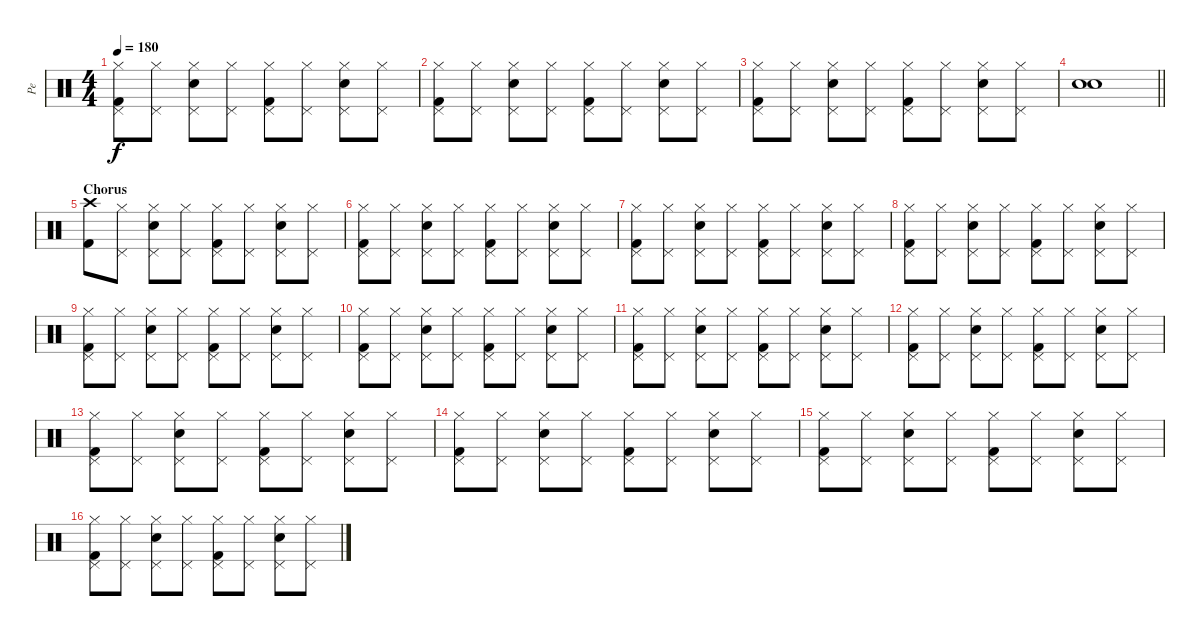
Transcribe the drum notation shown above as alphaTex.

\track ("Pe" "Pe") {instrument percussion}
\staff {score}
\articulation defaults
\ts (4 4)
\tempo 180
\clef neutral
\ks c
("Kick (hit) 2" "Hi-Hat (closed)" "Pedal Hi-Hat (hit)").8{dy f} ("Hi-Hat (closed)" "Pedal Hi-Hat (hit)").8 ("Electric Snare (hit)" "Hi-Hat (closed)" "Pedal Hi-Hat (hit)").8 ("Hi-Hat (closed)" "Pedal Hi-Hat (hit)").8 ("Kick (hit) 2" "Hi-Hat (closed)" "Pedal Hi-Hat (hit)").8 ("Hi-Hat (closed)" "Pedal Hi-Hat (hit)").8 ("Electric Snare (hit)" "Hi-Hat (closed)" "Pedal Hi-Hat (hit)").8 ("Hi-Hat (closed)" "Pedal Hi-Hat (hit)").8 |
("Kick (hit) 2" "Hi-Hat (closed)" "Pedal Hi-Hat (hit)").8 ("Hi-Hat (closed)" "Pedal Hi-Hat (hit)").8 ("Electric Snare (hit)" "Hi-Hat (closed)" "Pedal Hi-Hat (hit)").8 ("Hi-Hat (closed)" "Pedal Hi-Hat (hit)").8 ("Kick (hit) 2" "Hi-Hat (closed)" "Pedal Hi-Hat (hit)").8 ("Hi-Hat (closed)" "Pedal Hi-Hat (hit)").8 ("Electric Snare (hit)" "Hi-Hat (closed)" "Pedal Hi-Hat (hit)").8 ("Hi-Hat (closed)" "Pedal Hi-Hat (hit)").8 |
("Kick (hit) 2" "Hi-Hat (closed)" "Pedal Hi-Hat (hit)").8 ("Hi-Hat (closed)" "Pedal Hi-Hat (hit)").8 ("Electric Snare (hit)" "Hi-Hat (closed)" "Pedal Hi-Hat (hit)").8 ("Hi-Hat (closed)" "Pedal Hi-Hat (hit)").8 ("Kick (hit) 2" "Hi-Hat (closed)" "Pedal Hi-Hat (hit)").8 ("Hi-Hat (closed)" "Pedal Hi-Hat (hit)").8 ("Electric Snare (hit)" "Hi-Hat (closed)" "Pedal Hi-Hat (hit)").8 ("Hi-Hat (closed)" "Pedal Hi-Hat (hit)").8 |
\barLineRight lightlight
("Electric Snare (hit)" "Electric Snare (hit)").1 |
\section ("" "Chorus")
("Kick (hit) 2" "Crash high (hit)").8 ("Hi-Hat (closed)" "Pedal Hi-Hat (hit)").8 ("Electric Snare (hit)" "Hi-Hat (closed)" "Pedal Hi-Hat (hit)").8 ("Hi-Hat (closed)" "Pedal Hi-Hat (hit)").8 ("Kick (hit) 2" "Hi-Hat (closed)" "Pedal Hi-Hat (hit)").8 ("Hi-Hat (closed)" "Pedal Hi-Hat (hit)").8 ("Electric Snare (hit)" "Hi-Hat (closed)" "Pedal Hi-Hat (hit)").8 ("Hi-Hat (closed)" "Pedal Hi-Hat (hit)").8 |
("Kick (hit) 2" "Hi-Hat (closed)" "Pedal Hi-Hat (hit)").8 ("Hi-Hat (closed)" "Pedal Hi-Hat (hit)").8 ("Electric Snare (hit)" "Hi-Hat (closed)" "Pedal Hi-Hat (hit)").8 ("Hi-Hat (closed)" "Pedal Hi-Hat (hit)").8 ("Kick (hit) 2" "Hi-Hat (closed)" "Pedal Hi-Hat (hit)").8 ("Hi-Hat (closed)" "Pedal Hi-Hat (hit)").8 ("Electric Snare (hit)" "Hi-Hat (closed)" "Pedal Hi-Hat (hit)").8 ("Hi-Hat (closed)" "Pedal Hi-Hat (hit)").8 |
("Kick (hit) 2" "Hi-Hat (closed)" "Pedal Hi-Hat (hit)").8 ("Hi-Hat (closed)" "Pedal Hi-Hat (hit)").8 ("Electric Snare (hit)" "Hi-Hat (closed)" "Pedal Hi-Hat (hit)").8 ("Hi-Hat (closed)" "Pedal Hi-Hat (hit)").8 ("Kick (hit) 2" "Hi-Hat (closed)" "Pedal Hi-Hat (hit)").8 ("Hi-Hat (closed)" "Pedal Hi-Hat (hit)").8 ("Electric Snare (hit)" "Hi-Hat (closed)" "Pedal Hi-Hat (hit)").8 ("Hi-Hat (closed)" "Pedal Hi-Hat (hit)").8 |
("Kick (hit) 2" "Hi-Hat (closed)" "Pedal Hi-Hat (hit)").8 ("Hi-Hat (closed)" "Pedal Hi-Hat (hit)").8 ("Electric Snare (hit)" "Hi-Hat (closed)" "Pedal Hi-Hat (hit)").8 ("Hi-Hat (closed)" "Pedal Hi-Hat (hit)").8 ("Kick (hit) 2" "Hi-Hat (closed)" "Pedal Hi-Hat (hit)").8 ("Hi-Hat (closed)" "Pedal Hi-Hat (hit)").8 ("Electric Snare (hit)" "Hi-Hat (closed)" "Pedal Hi-Hat (hit)").8 ("Hi-Hat (closed)" "Pedal Hi-Hat (hit)").8 |
("Kick (hit) 2" "Hi-Hat (closed)" "Pedal Hi-Hat (hit)").8 ("Hi-Hat (closed)" "Pedal Hi-Hat (hit)").8 ("Electric Snare (hit)" "Hi-Hat (closed)" "Pedal Hi-Hat (hit)").8 ("Hi-Hat (closed)" "Pedal Hi-Hat (hit)").8 ("Kick (hit) 2" "Hi-Hat (closed)" "Pedal Hi-Hat (hit)").8 ("Hi-Hat (closed)" "Pedal Hi-Hat (hit)").8 ("Electric Snare (hit)" "Hi-Hat (closed)" "Pedal Hi-Hat (hit)").8 ("Hi-Hat (closed)" "Pedal Hi-Hat (hit)").8 |
("Kick (hit) 2" "Hi-Hat (closed)" "Pedal Hi-Hat (hit)").8 ("Hi-Hat (closed)" "Pedal Hi-Hat (hit)").8 ("Electric Snare (hit)" "Hi-Hat (closed)" "Pedal Hi-Hat (hit)").8 ("Hi-Hat (closed)" "Pedal Hi-Hat (hit)").8 ("Kick (hit) 2" "Hi-Hat (closed)" "Pedal Hi-Hat (hit)").8 ("Hi-Hat (closed)" "Pedal Hi-Hat (hit)").8 ("Electric Snare (hit)" "Hi-Hat (closed)" "Pedal Hi-Hat (hit)").8 ("Hi-Hat (closed)" "Pedal Hi-Hat (hit)").8 |
("Kick (hit) 2" "Hi-Hat (closed)" "Pedal Hi-Hat (hit)").8 ("Hi-Hat (closed)" "Pedal Hi-Hat (hit)").8 ("Electric Snare (hit)" "Hi-Hat (closed)" "Pedal Hi-Hat (hit)").8 ("Hi-Hat (closed)" "Pedal Hi-Hat (hit)").8 ("Kick (hit) 2" "Hi-Hat (closed)" "Pedal Hi-Hat (hit)").8 ("Hi-Hat (closed)" "Pedal Hi-Hat (hit)").8 ("Electric Snare (hit)" "Hi-Hat (closed)" "Pedal Hi-Hat (hit)").8 ("Hi-Hat (closed)" "Pedal Hi-Hat (hit)").8 |
("Kick (hit) 2" "Hi-Hat (closed)" "Pedal Hi-Hat (hit)").8 ("Hi-Hat (closed)" "Pedal Hi-Hat (hit)").8 ("Electric Snare (hit)" "Hi-Hat (closed)" "Pedal Hi-Hat (hit)").8 ("Hi-Hat (closed)" "Pedal Hi-Hat (hit)").8 ("Kick (hit) 2" "Hi-Hat (closed)" "Pedal Hi-Hat (hit)").8 ("Hi-Hat (closed)" "Pedal Hi-Hat (hit)").8 ("Electric Snare (hit)" "Hi-Hat (closed)" "Pedal Hi-Hat (hit)").8 ("Hi-Hat (closed)" "Pedal Hi-Hat (hit)").8 |
("Kick (hit) 2" "Hi-Hat (closed)" "Pedal Hi-Hat (hit)").8 ("Hi-Hat (closed)" "Pedal Hi-Hat (hit)").8 ("Electric Snare (hit)" "Hi-Hat (closed)" "Pedal Hi-Hat (hit)").8 ("Hi-Hat (closed)" "Pedal Hi-Hat (hit)").8 ("Kick (hit) 2" "Hi-Hat (closed)" "Pedal Hi-Hat (hit)").8 ("Hi-Hat (closed)" "Pedal Hi-Hat (hit)").8 ("Electric Snare (hit)" "Hi-Hat (closed)" "Pedal Hi-Hat (hit)").8 ("Hi-Hat (closed)" "Pedal Hi-Hat (hit)").8 |
("Kick (hit) 2" "Hi-Hat (closed)" "Pedal Hi-Hat (hit)").8 ("Hi-Hat (closed)" "Pedal Hi-Hat (hit)").8 ("Electric Snare (hit)" "Hi-Hat (closed)" "Pedal Hi-Hat (hit)").8 ("Hi-Hat (closed)" "Pedal Hi-Hat (hit)").8 ("Kick (hit) 2" "Hi-Hat (closed)" "Pedal Hi-Hat (hit)").8 ("Hi-Hat (closed)" "Pedal Hi-Hat (hit)").8 ("Electric Snare (hit)" "Hi-Hat (closed)" "Pedal Hi-Hat (hit)").8 ("Hi-Hat (closed)" "Pedal Hi-Hat (hit)").8 |
("Kick (hit) 2" "Hi-Hat (closed)" "Pedal Hi-Hat (hit)").8 ("Hi-Hat (closed)" "Pedal Hi-Hat (hit)").8 ("Electric Snare (hit)" "Hi-Hat (closed)" "Pedal Hi-Hat (hit)").8 ("Hi-Hat (closed)" "Pedal Hi-Hat (hit)").8 ("Kick (hit) 2" "Hi-Hat (closed)" "Pedal Hi-Hat (hit)").8 ("Hi-Hat (closed)" "Pedal Hi-Hat (hit)").8 ("Electric Snare (hit)" "Hi-Hat (closed)" "Pedal Hi-Hat (hit)").8 ("Hi-Hat (closed)" "Pedal Hi-Hat (hit)").8 |
("Kick (hit) 2" "Hi-Hat (closed)" "Pedal Hi-Hat (hit)").8 ("Hi-Hat (closed)" "Pedal Hi-Hat (hit)").8 ("Electric Snare (hit)" "Hi-Hat (closed)" "Pedal Hi-Hat (hit)").8 ("Hi-Hat (closed)" "Pedal Hi-Hat (hit)").8 ("Kick (hit) 2" "Hi-Hat (closed)" "Pedal Hi-Hat (hit)").8 ("Hi-Hat (closed)" "Pedal Hi-Hat (hit)").8 ("Electric Snare (hit)" "Hi-Hat (closed)" "Pedal Hi-Hat (hit)").8 ("Hi-Hat (closed)" "Pedal Hi-Hat (hit)").8
